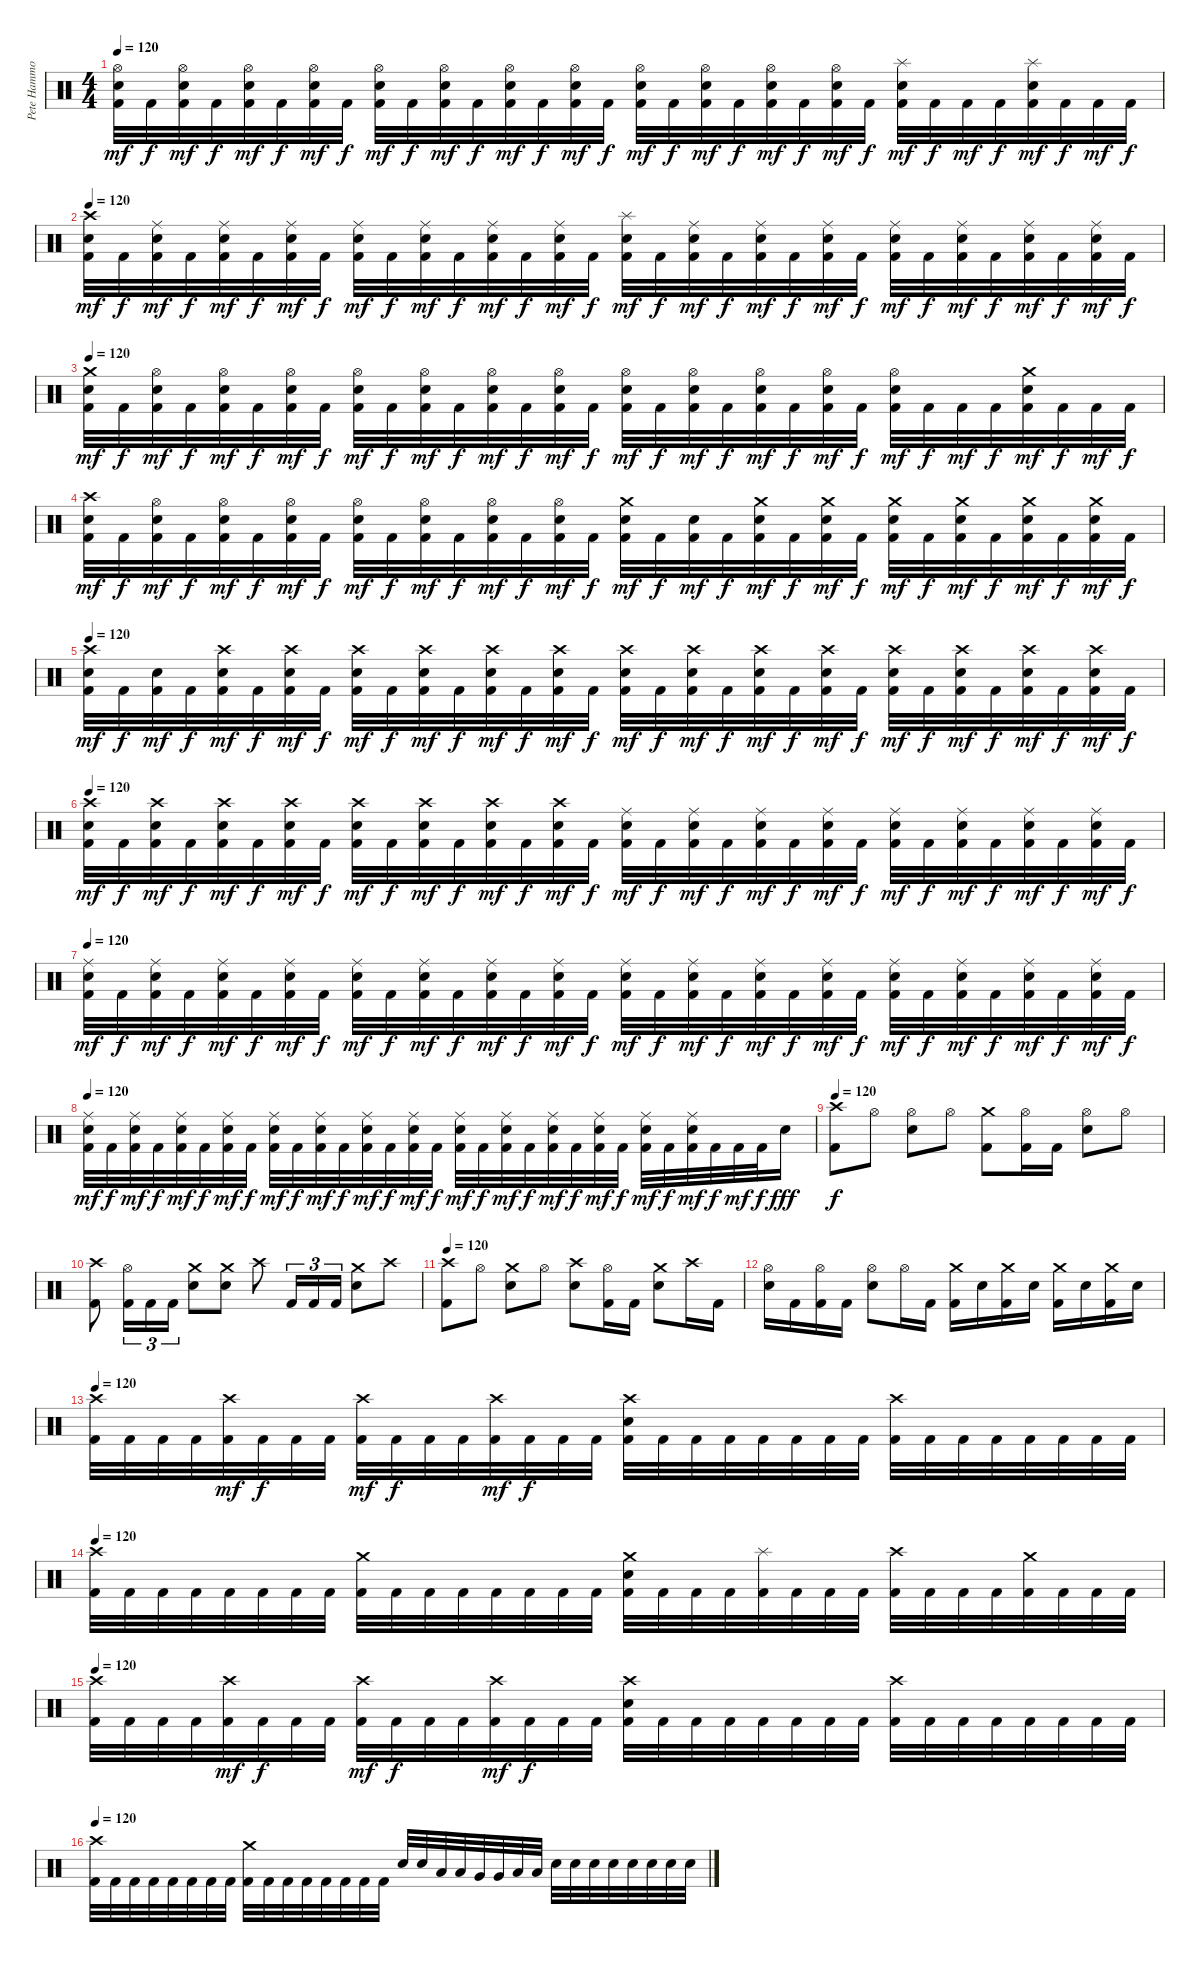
\track ("Pete Hammoura" "Pete Hammo") {instrument percussion}
\staff {score}
\articulation defaults
\ts (4 4)
\tempo 120
\clef neutral
\ks c
("Hi-Hat (open)" "Electric Snare (hit)" "Kick (hit) 2").32{dy mf} "Kick (hit) 2".32{dy f} ("Hi-Hat (open)" "Electric Snare (hit)" "Kick (hit) 2").32{dy mf} "Kick (hit) 2".32{dy f} ("Hi-Hat (open)" "Electric Snare (hit)" "Kick (hit) 2").32{dy mf} "Kick (hit) 2".32{dy f} ("Hi-Hat (open)" "Electric Snare (hit)" "Kick (hit) 2").32{dy mf} "Kick (hit) 2".32{dy f} ("Hi-Hat (open)" "Electric Snare (hit)" "Kick (hit) 2").32{dy mf} "Kick (hit) 2".32{dy f} ("Hi-Hat (open)" "Electric Snare (hit)" "Kick (hit) 2").32{dy mf} "Kick (hit) 2".32{dy f} ("Hi-Hat (open)" "Electric Snare (hit)" "Kick (hit) 2").32{dy mf} "Kick (hit) 2".32{dy f} ("Hi-Hat (open)" "Electric Snare (hit)" "Kick (hit) 2").32{dy mf} "Kick (hit) 2".32{dy f} ("Hi-Hat (open)" "Electric Snare (hit)" "Kick (hit) 2").32{dy mf} "Kick (hit) 2".32{dy f} ("Hi-Hat (open)" "Electric Snare (hit)" "Kick (hit) 2").32{dy mf} "Kick (hit) 2".32{dy f} ("Hi-Hat (open)" "Electric Snare (hit)" "Kick (hit) 2").32{dy mf} "Kick (hit) 2".32{dy f} ("Hi-Hat (open)" "Electric Snare (hit)" "Kick (hit) 2").32{dy mf} "Kick (hit) 2".32{dy f} ("Splash (hit)" "Electric Snare (hit)" "Kick (hit) 2").32{dy mf} "Kick (hit) 2".32{dy f} "Kick (hit) 2".32{dy mf} "Kick (hit) 2".32{dy f} ("Splash (hit)" "Electric Snare (hit)" "Kick (hit) 2").32{dy mf} "Kick (hit) 2".32{dy f} "Kick (hit) 2".32{dy mf} "Kick (hit) 2".32{dy f} |
\tempo 120
("Crash high (hit)" "Electric Snare (hit)" "Kick (hit) 2").32{dy mf} "Kick (hit) 2".32{dy f} ("Ride (middle)" "Electric Snare (hit)" "Kick (hit) 2").32{dy mf} "Kick (hit) 2".32{dy f} ("Ride (middle)" "Electric Snare (hit)" "Kick (hit) 2").32{dy mf} "Kick (hit) 2".32{dy f} ("Ride (middle)" "Electric Snare (hit)" "Kick (hit) 2").32{dy mf} "Kick (hit) 2".32{dy f} ("Ride (middle)" "Electric Snare (hit)" "Kick (hit) 2").32{dy mf} "Kick (hit) 2".32{dy f} ("Ride (middle)" "Electric Snare (hit)" "Kick (hit) 2").32{dy mf} "Kick (hit) 2".32{dy f} ("Ride (middle)" "Electric Snare (hit)" "Kick (hit) 2").32{dy mf} "Kick (hit) 2".32{dy f} ("Ride (middle)" "Electric Snare (hit)" "Kick (hit) 2").32{dy mf} "Kick (hit) 2".32{dy f} ("Splash (hit)" "Electric Snare (hit)" "Kick (hit) 2").32{dy mf} "Kick (hit) 2".32{dy f} ("Ride (middle)" "Electric Snare (hit)" "Kick (hit) 2").32{dy mf} "Kick (hit) 2".32{dy f} ("Ride (middle)" "Electric Snare (hit)" "Kick (hit) 2").32{dy mf} "Kick (hit) 2".32{dy f} ("Ride (middle)" "Electric Snare (hit)" "Kick (hit) 2").32{dy mf} "Kick (hit) 2".32{dy f} ("Ride (middle)" "Electric Snare (hit)" "Kick (hit) 2").32{dy mf} "Kick (hit) 2".32{dy f} ("Ride (middle)" "Electric Snare (hit)" "Kick (hit) 2").32{dy mf} "Kick (hit) 2".32{dy f} ("Ride (middle)" "Electric Snare (hit)" "Kick (hit) 2").32{dy mf} "Kick (hit) 2".32{dy f} ("Ride (middle)" "Electric Snare (hit)" "Kick (hit) 2").32{dy mf} "Kick (hit) 2".32{dy f} |
\tempo 120
("Crash medium (hit)" "Electric Snare (hit)" "Kick (hit) 2").32{dy mf} "Kick (hit) 2".32{dy f} ("Hi-Hat (open)" "Electric Snare (hit)" "Kick (hit) 2").32{dy mf} "Kick (hit) 2".32{dy f} ("Hi-Hat (open)" "Electric Snare (hit)" "Kick (hit) 2").32{dy mf} "Kick (hit) 2".32{dy f} ("Hi-Hat (open)" "Electric Snare (hit)" "Kick (hit) 2").32{dy mf} "Kick (hit) 2".32{dy f} ("Hi-Hat (open)" "Electric Snare (hit)" "Kick (hit) 2").32{dy mf} "Kick (hit) 2".32{dy f} ("Hi-Hat (open)" "Electric Snare (hit)" "Kick (hit) 2").32{dy mf} "Kick (hit) 2".32{dy f} ("Hi-Hat (open)" "Electric Snare (hit)" "Kick (hit) 2").32{dy mf} "Kick (hit) 2".32{dy f} ("Hi-Hat (open)" "Electric Snare (hit)" "Kick (hit) 2").32{dy mf} "Kick (hit) 2".32{dy f} ("Hi-Hat (open)" "Electric Snare (hit)" "Kick (hit) 2").32{dy mf} "Kick (hit) 2".32{dy f} ("Hi-Hat (open)" "Electric Snare (hit)" "Kick (hit) 2").32{dy mf} "Kick (hit) 2".32{dy f} ("Hi-Hat (open)" "Electric Snare (hit)" "Kick (hit) 2").32{dy mf} "Kick (hit) 2".32{dy f} ("Hi-Hat (open)" "Electric Snare (hit)" "Kick (hit) 2").32{dy mf} "Kick (hit) 2".32{dy f} ("Hi-Hat (open)" "Electric Snare (hit)" "Kick (hit) 2").32{dy mf} "Kick (hit) 2".32{dy f} "Kick (hit) 2".32{dy mf} "Kick (hit) 2".32{dy f} ("Crash medium (hit)" "Electric Snare (hit)" "Kick (hit) 2").32{dy mf} "Kick (hit) 2".32{dy f} "Kick (hit) 2".32{dy mf} "Kick (hit) 2".32{dy f} |
("Crash high (hit)" "Electric Snare (hit)" "Kick (hit) 2").32{dy mf} "Kick (hit) 2".32{dy f} ("Hi-Hat (open)" "Electric Snare (hit)" "Kick (hit) 2").32{dy mf} "Kick (hit) 2".32{dy f} ("Hi-Hat (open)" "Electric Snare (hit)" "Kick (hit) 2").32{dy mf} "Kick (hit) 2".32{dy f} ("Hi-Hat (open)" "Electric Snare (hit)" "Kick (hit) 2").32{dy mf} "Kick (hit) 2".32{dy f} ("Hi-Hat (open)" "Electric Snare (hit)" "Kick (hit) 2").32{dy mf} "Kick (hit) 2".32{dy f} ("Hi-Hat (open)" "Electric Snare (hit)" "Kick (hit) 2").32{dy mf} "Kick (hit) 2".32{dy f} ("Hi-Hat (open)" "Electric Snare (hit)" "Kick (hit) 2").32{dy mf} "Kick (hit) 2".32{dy f} ("Hi-Hat (open)" "Electric Snare (hit)" "Kick (hit) 2").32{dy mf} "Kick (hit) 2".32{dy f} ("Crash medium (hit)" "Electric Snare (hit)" "Kick (hit) 2").32{dy mf} "Kick (hit) 2".32{dy f} ("Electric Snare (hit)" "Kick (hit) 2").32{dy mf} "Kick (hit) 2".32{dy f} ("Crash medium (hit)" "Electric Snare (hit)" "Kick (hit) 2").32{dy mf} "Kick (hit) 2".32{dy f} ("Crash medium (hit)" "Electric Snare (hit)" "Kick (hit) 2").32{dy mf} "Kick (hit) 2".32{dy f} ("Crash medium (hit)" "Electric Snare (hit)" "Kick (hit) 2").32{dy mf} "Kick (hit) 2".32{dy f} ("Crash medium (hit)" "Electric Snare (hit)" "Kick (hit) 2").32{dy mf} "Kick (hit) 2".32{dy f} ("Crash medium (hit)" "Electric Snare (hit)" "Kick (hit) 2").32{dy mf} "Kick (hit) 2".32{dy f} ("Crash medium (hit)" "Electric Snare (hit)" "Kick (hit) 2").32{dy mf} "Kick (hit) 2".32{dy f} |
\tempo 120
("Crash high (hit)" "Electric Snare (hit)" "Kick (hit) 2").32{dy mf} "Kick (hit) 2".32{dy f} ("Electric Snare (hit)" "Kick (hit) 2").32{dy mf} "Kick (hit) 2".32{dy f} ("Crash high (hit)" "Electric Snare (hit)" "Kick (hit) 2").32{dy mf} "Kick (hit) 2".32{dy f} ("Crash high (hit)" "Electric Snare (hit)" "Kick (hit) 2").32{dy mf} "Kick (hit) 2".32{dy f} ("Crash high (hit)" "Electric Snare (hit)" "Kick (hit) 2").32{dy mf} "Kick (hit) 2".32{dy f} ("Crash high (hit)" "Electric Snare (hit)" "Kick (hit) 2").32{dy mf} "Kick (hit) 2".32{dy f} ("Crash high (hit)" "Electric Snare (hit)" "Kick (hit) 2").32{dy mf} "Kick (hit) 2".32{dy f} ("Crash high (hit)" "Electric Snare (hit)" "Kick (hit) 2").32{dy mf} "Kick (hit) 2".32{dy f} ("Crash high (hit)" "Electric Snare (hit)" "Kick (hit) 2").32{dy mf} "Kick (hit) 2".32{dy f} ("Crash high (hit)" "Electric Snare (hit)" "Kick (hit) 2").32{dy mf} "Kick (hit) 2".32{dy f} ("Crash high (hit)" "Electric Snare (hit)" "Kick (hit) 2").32{dy mf} "Kick (hit) 2".32{dy f} ("Crash high (hit)" "Electric Snare (hit)" "Kick (hit) 2").32{dy mf} "Kick (hit) 2".32{dy f} ("Crash high (hit)" "Electric Snare (hit)" "Kick (hit) 2").32{dy mf} "Kick (hit) 2".32{dy f} ("Crash high (hit)" "Electric Snare (hit)" "Kick (hit) 2").32{dy mf} "Kick (hit) 2".32{dy f} ("Crash high (hit)" "Electric Snare (hit)" "Kick (hit) 2").32{dy mf} "Kick (hit) 2".32{dy f} ("Crash high (hit)" "Electric Snare (hit)" "Kick (hit) 2").32{dy mf} "Kick (hit) 2".32{dy f} |
\tempo 120
("Crash high (hit)" "Electric Snare (hit)" "Kick (hit) 2").32{dy mf} "Kick (hit) 2".32{dy f} ("Crash high (hit)" "Electric Snare (hit)" "Kick (hit) 2").32{dy mf} "Kick (hit) 2".32{dy f} ("Crash high (hit)" "Electric Snare (hit)" "Kick (hit) 2").32{dy mf} "Kick (hit) 2".32{dy f} ("Crash high (hit)" "Electric Snare (hit)" "Kick (hit) 2").32{dy mf} "Kick (hit) 2".32{dy f} ("Crash high (hit)" "Electric Snare (hit)" "Kick (hit) 2").32{dy mf} "Kick (hit) 2".32{dy f} ("Crash high (hit)" "Electric Snare (hit)" "Kick (hit) 2").32{dy mf} "Kick (hit) 2".32{dy f} ("Crash high (hit)" "Electric Snare (hit)" "Kick (hit) 2").32{dy mf} "Kick (hit) 2".32{dy f} ("Crash high (hit)" "Electric Snare (hit)" "Kick (hit) 2").32{dy mf} "Kick (hit) 2".32{dy f} ("Ride (middle)" "Electric Snare (hit)" "Kick (hit) 2").32{dy mf} "Kick (hit) 2".32{dy f} ("Ride (middle)" "Electric Snare (hit)" "Kick (hit) 2").32{dy mf} "Kick (hit) 2".32{dy f} ("Ride (middle)" "Electric Snare (hit)" "Kick (hit) 2").32{dy mf} "Kick (hit) 2".32{dy f} ("Ride (middle)" "Electric Snare (hit)" "Kick (hit) 2").32{dy mf} "Kick (hit) 2".32{dy f} ("Ride (middle)" "Electric Snare (hit)" "Kick (hit) 2").32{dy mf} "Kick (hit) 2".32{dy f} ("Ride (middle)" "Electric Snare (hit)" "Kick (hit) 2").32{dy mf} "Kick (hit) 2".32{dy f} ("Ride (middle)" "Electric Snare (hit)" "Kick (hit) 2").32{dy mf} "Kick (hit) 2".32{dy f} ("Ride (middle)" "Electric Snare (hit)" "Kick (hit) 2").32{dy mf} "Kick (hit) 2".32{dy f} |
\tempo 120
("Ride (middle)" "Electric Snare (hit)" "Kick (hit) 2").32{dy mf} "Kick (hit) 2".32{dy f} ("Ride (middle)" "Electric Snare (hit)" "Kick (hit) 2").32{dy mf} "Kick (hit) 2".32{dy f} ("Ride (middle)" "Electric Snare (hit)" "Kick (hit) 2").32{dy mf} "Kick (hit) 2".32{dy f} ("Ride (middle)" "Electric Snare (hit)" "Kick (hit) 2").32{dy mf} "Kick (hit) 2".32{dy f} ("Ride (middle)" "Electric Snare (hit)" "Kick (hit) 2").32{dy mf} "Kick (hit) 2".32{dy f} ("Ride (middle)" "Electric Snare (hit)" "Kick (hit) 2").32{dy mf} "Kick (hit) 2".32{dy f} ("Ride (middle)" "Electric Snare (hit)" "Kick (hit) 2").32{dy mf} "Kick (hit) 2".32{dy f} ("Ride (middle)" "Electric Snare (hit)" "Kick (hit) 2").32{dy mf} "Kick (hit) 2".32{dy f} ("Ride (middle)" "Electric Snare (hit)" "Kick (hit) 2").32{dy mf} "Kick (hit) 2".32{dy f} ("Ride (middle)" "Electric Snare (hit)" "Kick (hit) 2").32{dy mf} "Kick (hit) 2".32{dy f} ("Ride (middle)" "Electric Snare (hit)" "Kick (hit) 2").32{dy mf} "Kick (hit) 2".32{dy f} ("Ride (middle)" "Electric Snare (hit)" "Kick (hit) 2").32{dy mf} "Kick (hit) 2".32{dy f} ("Ride (middle)" "Electric Snare (hit)" "Kick (hit) 2").32{dy mf} "Kick (hit) 2".32{dy f} ("Ride (middle)" "Electric Snare (hit)" "Kick (hit) 2").32{dy mf} "Kick (hit) 2".32{dy f} ("Ride (middle)" "Electric Snare (hit)" "Kick (hit) 2").32{dy mf} "Kick (hit) 2".32{dy f} ("Ride (middle)" "Electric Snare (hit)" "Kick (hit) 2").32{dy mf} "Kick (hit) 2".32{dy f} |
\tempo 120
("Ride (middle)" "Electric Snare (hit)" "Kick (hit) 2").32{dy mf} "Kick (hit) 2".32{dy f} ("Ride (middle)" "Electric Snare (hit)" "Kick (hit) 2").32{dy mf} "Kick (hit) 2".32{dy f} ("Ride (middle)" "Electric Snare (hit)" "Kick (hit) 2").32{dy mf} "Kick (hit) 2".32{dy f} ("Ride (middle)" "Electric Snare (hit)" "Kick (hit) 2").32{dy mf} "Kick (hit) 2".32{dy f} ("Ride (middle)" "Electric Snare (hit)" "Kick (hit) 2").32{dy mf} "Kick (hit) 2".32{dy f} ("Ride (middle)" "Electric Snare (hit)" "Kick (hit) 2").32{dy mf} "Kick (hit) 2".32{dy f} ("Ride (middle)" "Electric Snare (hit)" "Kick (hit) 2").32{dy mf} "Kick (hit) 2".32{dy f} ("Ride (middle)" "Electric Snare (hit)" "Kick (hit) 2").32{dy mf} "Kick (hit) 2".32{dy f} ("Ride (middle)" "Electric Snare (hit)" "Kick (hit) 2").32{dy mf} "Kick (hit) 2".32{dy f} ("Ride (middle)" "Electric Snare (hit)" "Kick (hit) 2").32{dy mf} "Kick (hit) 2".32{dy f} ("Ride (middle)" "Electric Snare (hit)" "Kick (hit) 2").32{dy mf} "Kick (hit) 2".32{dy f} ("Ride (middle)" "Electric Snare (hit)" "Kick (hit) 2").32{dy mf} "Kick (hit) 2".32{dy f} ("Ride (middle)" "Electric Snare (hit)" "Kick (hit) 2").32{dy mf} "Kick (hit) 2".32{dy f} ("Ride (middle)" "Electric Snare (hit)" "Kick (hit) 2").32{dy mf} "Kick (hit) 2".32{dy f} "Kick (hit) 2".32{dy mf} "Kick (hit) 2".32{dy f} "Electric Snare (hit)".16{dy fff} |
\tempo 120
("Crash high (hit)" "Kick (hit) 2").8{dy f} "Hi-Hat (open)".8 ("Hi-Hat (open)" "Electric Snare (hit)").8 "Hi-Hat (open)".8 ("Crash medium (hit)" "Kick (hit) 2").8 ("Hi-Hat (open)" "Kick (hit) 2").16 "Kick (hit) 2".16 ("Hi-Hat (open)" "Electric Snare (hit)").8 "Hi-Hat (open)".8 |
("Crash high (hit)" "Kick (hit) 2").8 ("Hi-Hat (open)" "Kick (hit) 2").16{tu (3 2)} "Kick (hit) 2".16{tu (3 2)} "Kick (hit) 2".16{tu (3 2)} ("Crash medium (hit)" "Electric Snare (hit)").8 ("Crash medium (hit)" "Electric Snare (hit)").8 "Crash high (hit)".8 "Kick (hit) 2".16{tu (3 2)} "Kick (hit) 2".16{tu (3 2)} "Kick (hit) 2".16{tu (3 2)} ("Crash medium (hit)" "Electric Snare (hit)").8 "Crash high (hit)".8 |
\tempo 120
("Crash high (hit)" "Kick (hit) 2").8 "Hi-Hat (open)".8 ("Crash medium (hit)" "Electric Snare (hit)").8 "Hi-Hat (open)".8 ("Crash high (hit)" "Electric Snare (hit)").8 ("Hi-Hat (open)" "Kick (hit) 2").16 "Kick (hit) 2".16 ("Crash medium (hit)" "Electric Snare (hit)").8 "Crash high (hit)".16 "Kick (hit) 2".16 |
("Hi-Hat (open)" "Electric Snare (hit)").16 "Kick (hit) 2".16 ("Hi-Hat (open)" "Kick (hit) 2").16 "Kick (hit) 2".16 ("Hi-Hat (open)" "Electric Snare (hit)").8 "Hi-Hat (open)".16 "Kick (hit) 2".16 ("Crash medium (hit)" "Kick (hit) 2").16 "Electric Snare (hit)".16 ("Crash medium (hit)" "Kick (hit) 2").16 "Electric Snare (hit)".16 ("Crash medium (hit)" "Kick (hit) 2").16 "Electric Snare (hit)".16 ("Crash medium (hit)" "Kick (hit) 2").16 "Electric Snare (hit)".16 |
\tempo 120
("Crash high (hit)" "Kick (hit) 2").32 "Kick (hit) 2".32 "Kick (hit) 2".32 "Kick (hit) 2".32 ("Crash high (hit)" "Kick (hit) 2").32{dy mf} "Kick (hit) 2".32{dy f} "Kick (hit) 2".32 "Kick (hit) 2".32 ("Crash high (hit)" "Kick (hit) 2").32{dy mf} "Kick (hit) 2".32{dy f} "Kick (hit) 2".32 "Kick (hit) 2".32 ("Crash high (hit)" "Kick (hit) 2").32{dy mf} "Kick (hit) 2".32{dy f} "Kick (hit) 2".32 "Kick (hit) 2".32 ("Crash high (hit)" "Electric Snare (hit)" "Kick (hit) 2").32 "Kick (hit) 2".32 "Kick (hit) 2".32 "Kick (hit) 2".32 "Kick (hit) 2".32 "Kick (hit) 2".32 "Kick (hit) 2".32 "Kick (hit) 2".32 ("Crash high (hit)" "Kick (hit) 2").32 "Kick (hit) 2".32 "Kick (hit) 2".32 "Kick (hit) 2".32 "Kick (hit) 2".32 "Kick (hit) 2".32 "Kick (hit) 2".32 "Kick (hit) 2".32 |
\tempo 120
("Crash high (hit)" "Kick (hit) 2").32 "Kick (hit) 2".32 "Kick (hit) 2".32 "Kick (hit) 2".32 "Kick (hit) 2".32 "Kick (hit) 2".32 "Kick (hit) 2".32 "Kick (hit) 2".32 ("Crash medium (hit)" "Kick (hit) 2").32 "Kick (hit) 2".32 "Kick (hit) 2".32 "Kick (hit) 2".32 "Kick (hit) 2".32 "Kick (hit) 2".32 "Kick (hit) 2".32 "Kick (hit) 2".32 ("Crash medium (hit)" "Electric Snare (hit)" "Kick (hit) 2").32 "Kick (hit) 2".32 "Kick (hit) 2".32 "Kick (hit) 2".32 ("Splash (hit)" "Kick (hit) 2").32 "Kick (hit) 2".32 "Kick (hit) 2".32 "Kick (hit) 2".32 ("Crash high (hit)" "Kick (hit) 2").32 "Kick (hit) 2".32 "Kick (hit) 2".32 "Kick (hit) 2".32 ("Crash medium (hit)" "Kick (hit) 2").32 "Kick (hit) 2".32 "Kick (hit) 2".32 "Kick (hit) 2".32 |
\tempo 120
("Crash high (hit)" "Kick (hit) 2").32 "Kick (hit) 2".32 "Kick (hit) 2".32 "Kick (hit) 2".32 ("Crash high (hit)" "Kick (hit) 2").32{dy mf} "Kick (hit) 2".32{dy f} "Kick (hit) 2".32 "Kick (hit) 2".32 ("Crash high (hit)" "Kick (hit) 2").32{dy mf} "Kick (hit) 2".32{dy f} "Kick (hit) 2".32 "Kick (hit) 2".32 ("Crash high (hit)" "Kick (hit) 2").32{dy mf} "Kick (hit) 2".32{dy f} "Kick (hit) 2".32 "Kick (hit) 2".32 ("Crash high (hit)" "Electric Snare (hit)" "Kick (hit) 2").32 "Kick (hit) 2".32 "Kick (hit) 2".32 "Kick (hit) 2".32 "Kick (hit) 2".32 "Kick (hit) 2".32 "Kick (hit) 2".32 "Kick (hit) 2".32 ("Crash high (hit)" "Kick (hit) 2").32 "Kick (hit) 2".32 "Kick (hit) 2".32 "Kick (hit) 2".32 "Kick (hit) 2".32 "Kick (hit) 2".32 "Kick (hit) 2".32 "Kick (hit) 2".32 |
\tempo 120
("Crash high (hit)" "Kick (hit) 2").32 "Kick (hit) 2".32 "Kick (hit) 2".32 "Kick (hit) 2".32 "Kick (hit) 2".32 "Kick (hit) 2".32 "Kick (hit) 2".32 "Kick (hit) 2".32 ("Crash medium (hit)" "Kick (hit) 2").32 "Kick (hit) 2".32 "Kick (hit) 2".32 "Kick (hit) 2".32 "Kick (hit) 2".32 "Kick (hit) 2".32 "Kick (hit) 2".32 "Kick (hit) 2".32 "Electric Snare (hit)".32 "Electric Snare (hit)".32 "Low Tom (hit)".32 "Low Tom (hit)".32 "Very Low Tom (hit)".32 "Very Low Tom (hit)".32 "Low Floor Tom (hit)".32 "Low Floor Tom (hit)".32 "Electric Snare (hit)".32 "Electric Snare (hit)".32 "Electric Snare (hit)".32 "Electric Snare (hit)".32 "Electric Snare (hit)".32 "Electric Snare (hit)".32 "Electric Snare (hit)".32 "Electric Snare (hit)".32
